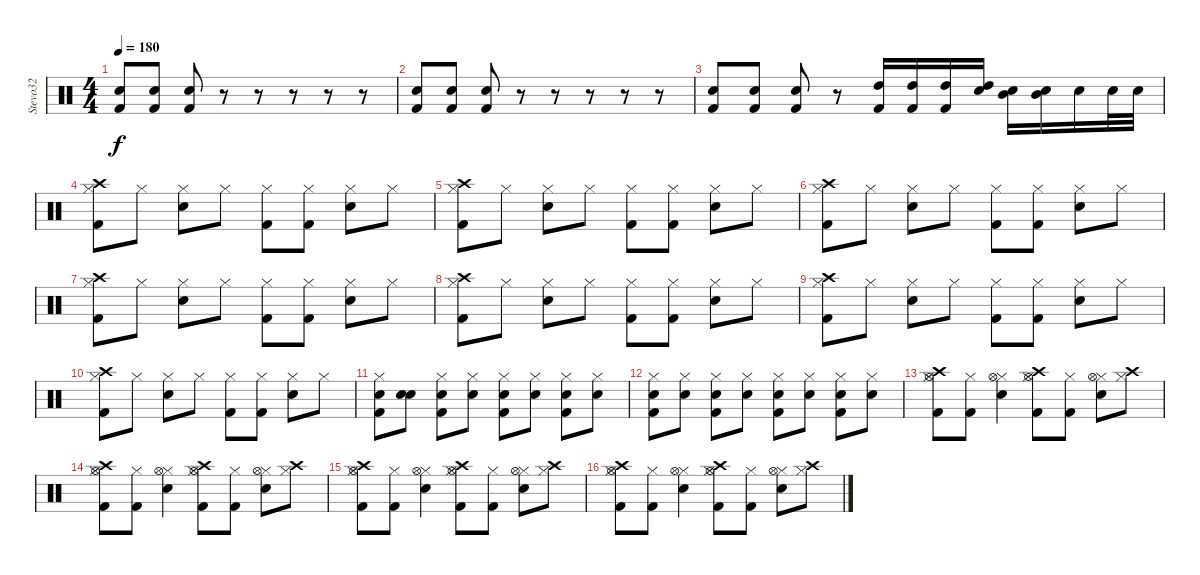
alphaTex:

\track ("Stevo32" "Stevo32") {instrument percussion}
\staff {score}
\articulation defaults
\ts (4 4)
\tempo 180
\clef neutral
\ks c
("Electric Snare (hit)" "Kick (hit) 2").8{dy f} ("Electric Snare (hit)" "Kick (hit) 2").8 ("Electric Snare (hit)" "Kick (hit) 2").8 r.8 r.8 r.8 r.8 r.8 |
("Electric Snare (hit)" "Kick (hit) 2").8 ("Electric Snare (hit)" "Kick (hit) 2").8 ("Electric Snare (hit)" "Kick (hit) 2").8 r.8 r.8 r.8 r.8 r.8 |
("Electric Snare (hit)" "Kick (hit) 2").8 ("Electric Snare (hit)" "Kick (hit) 2").8 ("Electric Snare (hit)" "Kick (hit) 2").8 r.8 ("High Tom (hit)" "Kick (hit) 2").16 ("High Tom (hit)" "Kick (hit) 2").16 ("High Tom (hit)" "Kick (hit) 2").16 ("High Tom (hit)" "Electric Snare (hit)").16 ("Mid Tom (hit)" "Electric Snare (hit)").16 ("Mid Tom (hit)" "Electric Snare (hit)").16 "Electric Snare (hit)".16 "Electric Snare (hit)".32 "Electric Snare (hit)".32 |
("Hi-Hat (closed)" "Kick (hit) 2" "Crash high (hit)").8 "Hi-Hat (closed)".8 ("Hi-Hat (closed)" "Electric Snare (hit)").8 "Hi-Hat (closed)".8 ("Hi-Hat (closed)" "Kick (hit) 2").8 ("Hi-Hat (closed)" "Kick (hit) 2").8 ("Hi-Hat (closed)" "Electric Snare (hit)").8 "Hi-Hat (closed)".8 |
("Hi-Hat (closed)" "Kick (hit) 2" "Crash high (hit)").8 "Hi-Hat (closed)".8 ("Hi-Hat (closed)" "Electric Snare (hit)").8 "Hi-Hat (closed)".8 ("Hi-Hat (closed)" "Kick (hit) 2").8 ("Hi-Hat (closed)" "Kick (hit) 2").8 ("Hi-Hat (closed)" "Electric Snare (hit)").8 "Hi-Hat (closed)".8 |
("Hi-Hat (closed)" "Kick (hit) 2" "Crash high (hit)").8 "Hi-Hat (closed)".8 ("Hi-Hat (closed)" "Electric Snare (hit)").8 "Hi-Hat (closed)".8 ("Hi-Hat (closed)" "Kick (hit) 2").8 ("Hi-Hat (closed)" "Kick (hit) 2").8 ("Hi-Hat (closed)" "Electric Snare (hit)").8 "Hi-Hat (closed)".8 |
("Hi-Hat (closed)" "Kick (hit) 2" "Crash high (hit)").8 "Hi-Hat (closed)".8 ("Hi-Hat (closed)" "Electric Snare (hit)").8 "Hi-Hat (closed)".8 ("Hi-Hat (closed)" "Kick (hit) 2").8 ("Hi-Hat (closed)" "Kick (hit) 2").8 ("Hi-Hat (closed)" "Electric Snare (hit)").8 "Hi-Hat (closed)".8 |
("Hi-Hat (closed)" "Kick (hit) 2" "Crash high (hit)").8 "Hi-Hat (closed)".8 ("Hi-Hat (closed)" "Electric Snare (hit)").8 "Hi-Hat (closed)".8 ("Hi-Hat (closed)" "Kick (hit) 2").8 ("Hi-Hat (closed)" "Kick (hit) 2").8 ("Hi-Hat (closed)" "Electric Snare (hit)").8 "Hi-Hat (closed)".8 |
("Hi-Hat (closed)" "Kick (hit) 2" "Crash high (hit)").8 "Hi-Hat (closed)".8 ("Hi-Hat (closed)" "Electric Snare (hit)").8 "Hi-Hat (closed)".8 ("Hi-Hat (closed)" "Kick (hit) 2").8 ("Hi-Hat (closed)" "Kick (hit) 2").8 ("Hi-Hat (closed)" "Electric Snare (hit)").8 "Hi-Hat (closed)".8 |
("Hi-Hat (closed)" "Kick (hit) 2" "Crash high (hit)").8 "Hi-Hat (closed)".8 ("Hi-Hat (closed)" "Electric Snare (hit)").8 "Hi-Hat (closed)".8 ("Hi-Hat (closed)" "Kick (hit) 2").8 ("Hi-Hat (closed)" "Kick (hit) 2").8 ("Hi-Hat (closed)" "Electric Snare (hit)").8 "Hi-Hat (closed)".8 |
("Hi-Hat (closed)" "Electric Snare (hit)" "Kick (hit) 2").8 ("Snare (hit)" "Electric Snare (hit)").8 ("Hi-Hat (closed)" "Electric Snare (hit)" "Kick (hit) 2").8 ("Hi-Hat (closed)" "Electric Snare (hit)").8 ("Hi-Hat (closed)" "Electric Snare (hit)" "Kick (hit) 2").8 ("Hi-Hat (closed)" "Electric Snare (hit)").8 ("Hi-Hat (closed)" "Electric Snare (hit)" "Kick (hit) 2").8 ("Hi-Hat (closed)" "Electric Snare (hit)").8 |
("Hi-Hat (closed)" "Electric Snare (hit)" "Kick (hit) 2").8 ("Hi-Hat (closed)" "Electric Snare (hit)").8 ("Hi-Hat (closed)" "Electric Snare (hit)" "Kick (hit) 2").8 ("Hi-Hat (closed)" "Electric Snare (hit)").8 ("Hi-Hat (closed)" "Electric Snare (hit)" "Kick (hit) 2").8 ("Hi-Hat (closed)" "Electric Snare (hit)").8 ("Hi-Hat (closed)" "Electric Snare (hit)" "Kick (hit) 2").8 ("Hi-Hat (closed)" "Electric Snare (hit)").8 |
("Hi-Hat (closed)" "Kick (hit) 2" "Hi-Hat (open)" "Crash high (hit)").8 ("Hi-Hat (closed)" "Kick (hit) 2").8 ("Hi-Hat (closed)" "Electric Snare (hit)" "Hi-Hat (open)").4 ("Hi-Hat (closed)" "Kick (hit) 2" "Hi-Hat (open)" "Crash high (hit)").8 ("Hi-Hat (closed)" "Kick (hit) 2").8 ("Hi-Hat (closed)" "Electric Snare (hit)" "Hi-Hat (open)").8 ("Hi-Hat (closed)" "Crash high (hit)").8 |
("Hi-Hat (closed)" "Kick (hit) 2" "Hi-Hat (open)" "Crash high (hit)").8 ("Hi-Hat (closed)" "Kick (hit) 2").8 ("Hi-Hat (closed)" "Electric Snare (hit)" "Hi-Hat (open)").4 ("Hi-Hat (closed)" "Kick (hit) 2" "Hi-Hat (open)" "Crash high (hit)").8 ("Hi-Hat (closed)" "Kick (hit) 2").8 ("Hi-Hat (closed)" "Electric Snare (hit)" "Hi-Hat (open)").8 ("Hi-Hat (closed)" "Crash high (hit)").8 |
("Hi-Hat (closed)" "Kick (hit) 2" "Hi-Hat (open)" "Crash high (hit)").8 ("Hi-Hat (closed)" "Kick (hit) 2").8 ("Hi-Hat (closed)" "Electric Snare (hit)" "Hi-Hat (open)").4 ("Hi-Hat (closed)" "Kick (hit) 2" "Hi-Hat (open)" "Crash high (hit)").8 ("Hi-Hat (closed)" "Kick (hit) 2").8 ("Hi-Hat (closed)" "Electric Snare (hit)" "Hi-Hat (open)").8 ("Hi-Hat (closed)" "Crash high (hit)").8 |
("Hi-Hat (closed)" "Kick (hit) 2" "Hi-Hat (open)" "Crash high (hit)").8 ("Hi-Hat (closed)" "Kick (hit) 2").8 ("Hi-Hat (closed)" "Electric Snare (hit)" "Hi-Hat (open)").4 ("Hi-Hat (closed)" "Kick (hit) 2" "Hi-Hat (open)" "Crash high (hit)").8 ("Hi-Hat (closed)" "Kick (hit) 2").8 ("Hi-Hat (closed)" "Electric Snare (hit)" "Hi-Hat (open)").8 ("Hi-Hat (closed)" "Crash high (hit)").8
